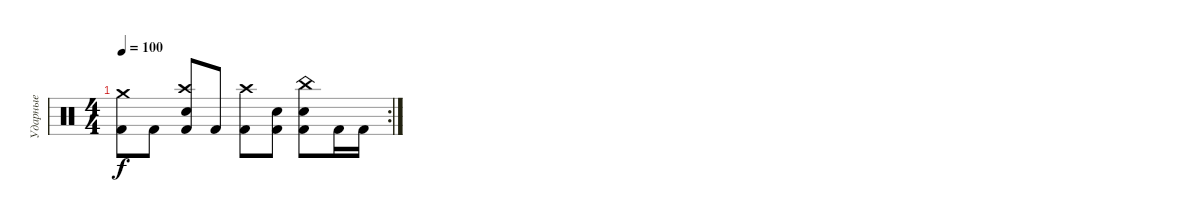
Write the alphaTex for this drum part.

\track ("Ударные" "Ударные") {instrument percussion}
\staff {score}
\articulation defaults
\rc 2
\ts (4 4)
\tempo 100
\clef neutral
\ks c
("Crash medium (hit)" "Kick (hit) 2").8{dy f} "Kick (hit) 2".8 ("Crash high (hit)" "Electric Snare (hit)" "Kick (hit) 2").8 "Kick (hit) 2".8 ("Crash high (hit)" "Kick (hit) 2").8 ("Electric Snare (hit)" "Kick (hit) 2").8 ("China (hit)" "Electric Snare (hit)" "Kick (hit) 2").8 "Kick (hit) 2".16 "Kick (hit) 2".16
